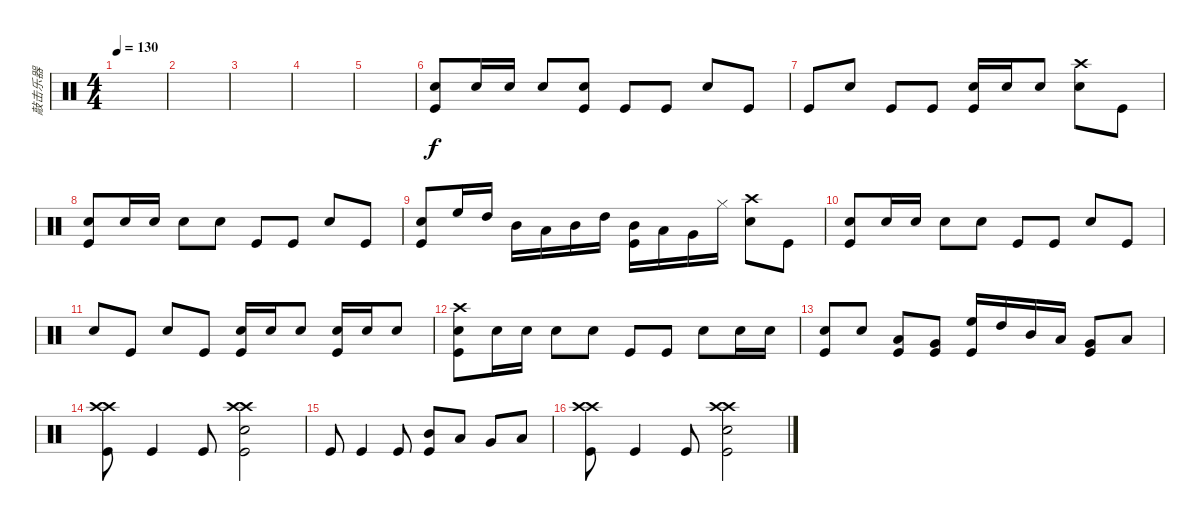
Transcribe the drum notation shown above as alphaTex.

\track ("敲击乐器" "敲击乐器") {instrument percussion}
\staff {score}
\articulation defaults
\ts (4 4)
\tempo 130
\clef neutral
\ks c
|
|
|
|
|
("Snare (hit) 2" "Kick (hit)").8 "Snare (hit) 2".16 "Snare (hit) 2".16 "Snare (hit) 2".8 ("Snare (hit) 2" "Kick (hit)").8 "Kick (hit)".8 "Kick (hit)".8 "Snare (hit) 2".8 "Kick (hit)".8 |
"Kick (hit)".8 "Snare (hit) 2".8 "Kick (hit)".8 "Kick (hit)".8 ("Snare (hit) 2" "Kick (hit)").16 "Snare (hit) 2".16 "Snare (hit) 2".8 ("Crash high (hit)" "Snare (hit) 2").8 "Kick (hit)".8 |
("Snare (hit) 2" "Kick (hit)").8 "Snare (hit) 2".16 "Snare (hit) 2".16 "Snare (hit) 2".8 "Snare (hit) 2".8 "Kick (hit)".8 "Kick (hit)".8 "Snare (hit) 2".8 "Kick (hit)".8 |
("Snare (hit) 2" "Kick (hit)").8 "High Floor Tom (hit)".16 "High Tom (hit)".16 "Mid Tom (hit)".16 "Low Tom (hit)".16 "Mid Tom (hit)".16 "High Tom (hit)".16 ("Mid Tom (hit)" "Kick (hit)").16 "Low Tom (hit)".16 "Very Low Tom (hit)".16 "Hi-Hat (closed)".16 ("Crash high (hit)" "Snare (hit) 2").8 "Kick (hit)".8 |
("Snare (hit) 2" "Kick (hit)").8 "Snare (hit) 2".16 "Snare (hit) 2".16 "Snare (hit) 2".8 "Snare (hit) 2".8 "Kick (hit)".8 "Kick (hit)".8 "Snare (hit) 2".8 "Kick (hit)".8 |
"Snare (hit) 2".8 "Kick (hit)".8 "Snare (hit) 2".8 "Kick (hit)".8 ("Snare (hit) 2" "Kick (hit)").16 "Snare (hit) 2".16 "Snare (hit) 2".8 ("Snare (hit) 2" "Kick (hit)").16 "Snare (hit) 2".16 "Snare (hit) 2".8 |
("Crash high (hit)" "Snare (hit) 2" "Kick (hit)").8 "Snare (hit) 2".16 "Snare (hit) 2".16 "Snare (hit) 2".8 "Snare (hit) 2".8 "Kick (hit)".8 "Kick (hit)".8 "Snare (hit) 2".8 "Snare (hit) 2".16 "Snare (hit) 2".16 |
("Snare (hit) 2" "Kick (hit)").8 "Snare (hit) 2".8 ("Low Tom (hit)" "Kick (hit)").8 ("Very Low Tom (hit)" "Kick (hit)").8 ("High Floor Tom (hit)" "Kick (hit)").16 "High Tom (hit)".16 "Mid Tom (hit)".16 "Low Tom (hit)".16 ("Very Low Tom (hit)" "Kick (hit)").8 "Low Floor Tom (hit)".8 |
("Crash high (hit)" "Crash high (hit)" "Kick (hit)").8 "Kick (hit)".4 "Kick (hit)".8 ("Crash high (hit)" "Crash high (hit)" "Snare (hit) 2" "Kick (hit)").2 |
"Kick (hit)".8 "Kick (hit)".4 "Kick (hit)".8 ("Mid Tom (hit)" "Kick (hit)").8 "Low Tom (hit)".8 "Very Low Tom (hit)".8 "Low Floor Tom (hit)".8 |
("Crash high (hit)" "Crash high (hit)" "Kick (hit)").8 "Kick (hit)".4 "Kick (hit)".8 ("Crash high (hit)" "Crash high (hit)" "Snare (hit) 2" "Kick (hit)").2
